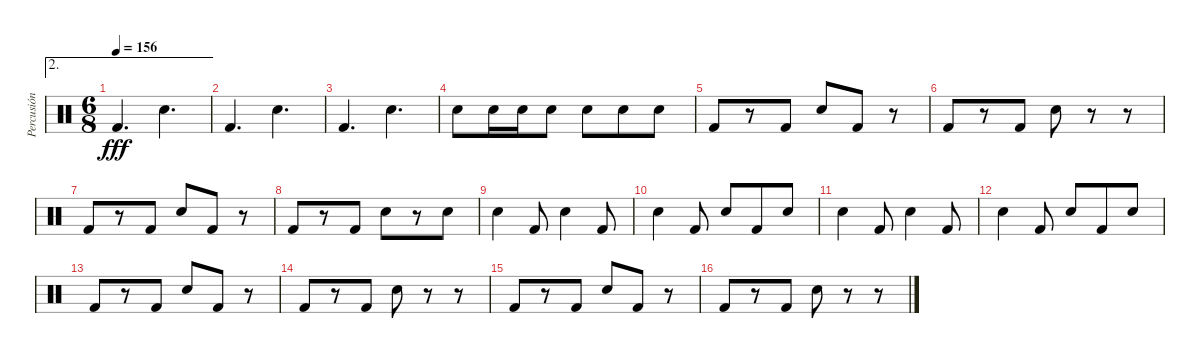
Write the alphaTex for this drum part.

\track ("Percusión" "Percusión") {instrument percussion}
\staff {score}
\articulation defaults
\ae 2
\ts (6 8)
\tempo 156
\clef neutral
\ks c "Kick (hit) 2".4{d dy fff} "Snare (hit) 2".4{d}
|
"Kick (hit) 2".4{d} "Snare (hit) 2".4{d} |
"Kick (hit) 2".4{d} "Snare (hit) 2".4{d} |
"Snare (hit) 2".8 "Snare (hit) 2".16 "Snare (hit) 2".16 "Snare (hit) 2".8 "Snare (hit) 2".8 "Snare (hit) 2".8 "Snare (hit) 2".8 |
"Kick (hit) 2".8 r.8 "Kick (hit) 2".8 "Snare (hit) 2".8 "Kick (hit) 2".8 r.8 |
"Kick (hit) 2".8 r.8 "Kick (hit) 2".8 "Snare (hit) 2".8 r.8 r.8 |
"Kick (hit) 2".8 r.8 "Kick (hit) 2".8 "Snare (hit) 2".8 "Kick (hit) 2".8 r.8 |
"Kick (hit) 2".8 r.8 "Kick (hit) 2".8 "Snare (hit) 2".8 r.8 "Snare (hit) 2".8 |
"Snare (hit) 2".4 "Kick (hit) 2".8 "Snare (hit) 2".4 "Kick (hit) 2".8 |
"Snare (hit) 2".4 "Kick (hit) 2".8 "Snare (hit) 2".8 "Kick (hit) 2".8 "Snare (hit) 2".8 |
"Snare (hit) 2".4 "Kick (hit) 2".8 "Snare (hit) 2".4 "Kick (hit) 2".8 |
"Snare (hit) 2".4 "Kick (hit) 2".8 "Snare (hit) 2".8 "Kick (hit) 2".8 "Snare (hit) 2".8 |
"Kick (hit) 2".8 r.8 "Kick (hit) 2".8 "Snare (hit) 2".8 "Kick (hit) 2".8 r.8 |
"Kick (hit) 2".8 r.8 "Kick (hit) 2".8 "Snare (hit) 2".8 r.8 r.8 |
"Kick (hit) 2".8 r.8 "Kick (hit) 2".8 "Snare (hit) 2".8 "Kick (hit) 2".8 r.8 |
"Kick (hit) 2".8 r.8 "Kick (hit) 2".8 "Snare (hit) 2".8 r.8 r.8
